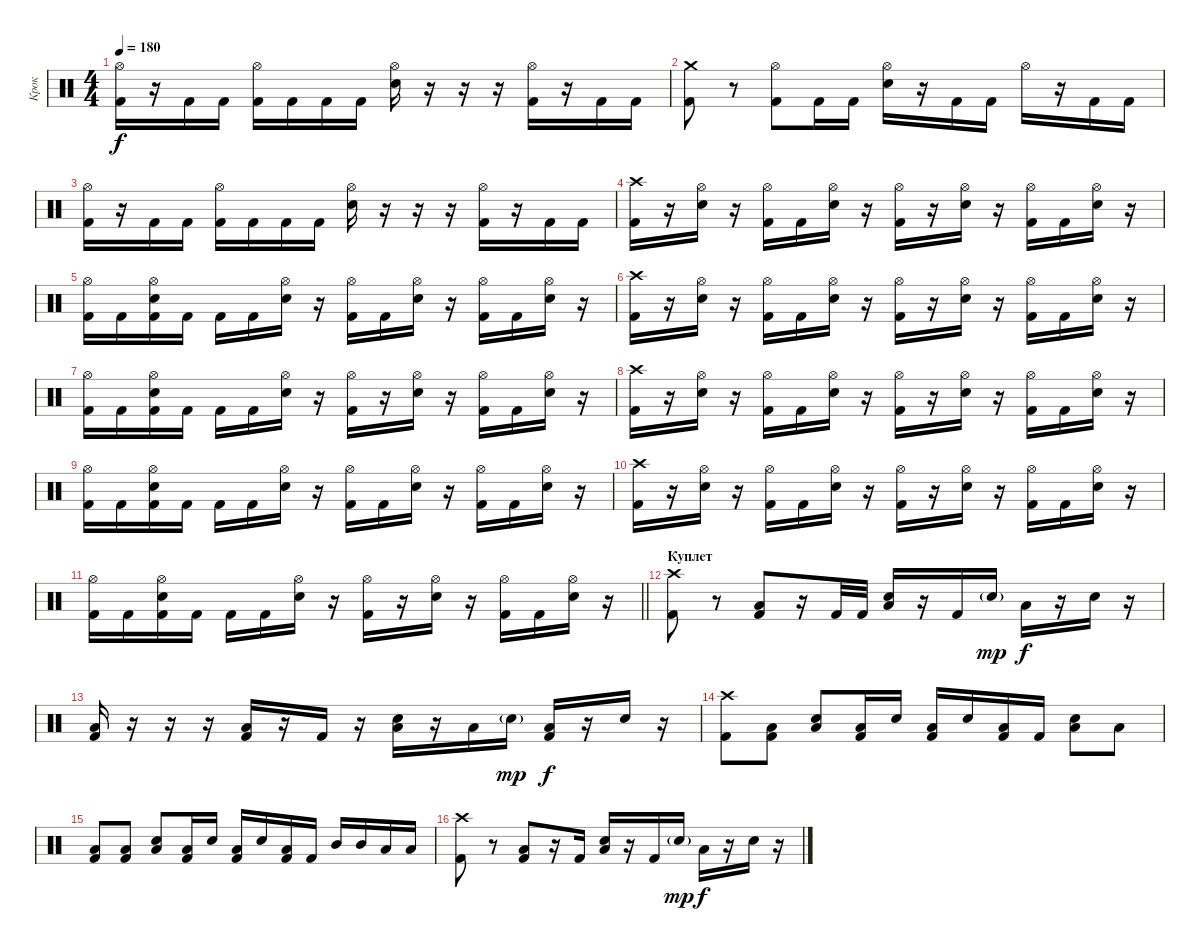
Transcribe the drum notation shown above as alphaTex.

\track ("Крок" "Крок") {instrument percussion}
\staff {score}
\articulation defaults
\ts (4 4)
\tempo 180
\clef neutral
\ks c
("Kick (hit) 2" "Hi-Hat (open)").16{dy f} r.16 "Kick (hit) 2".16 "Kick (hit) 2".16 ("Kick (hit) 2" "Hi-Hat (open)").16 "Kick (hit) 2".16 "Kick (hit) 2".16 "Kick (hit) 2".16 ("Electric Snare (hit)" "Hi-Hat (open)").16 r.16 r.16 r.16 ("Kick (hit) 2" "Hi-Hat (open)").16 r.16 "Kick (hit) 2".16 "Kick (hit) 2".16 |
("Kick (hit) 2" "Crash medium (hit)").8 r.8 ("Kick (hit) 2" "Hi-Hat (open)").8 "Kick (hit) 2".16 "Kick (hit) 2".16 ("Electric Snare (hit)" "Hi-Hat (open)").16 r.16 "Kick (hit) 2".16 "Kick (hit) 2".16 "Hi-Hat (open)".16 r.16 "Kick (hit) 2".16 "Kick (hit) 2".16 |
("Kick (hit) 2" "Hi-Hat (open)").16 r.16 "Kick (hit) 2".16 "Kick (hit) 2".16 ("Kick (hit) 2" "Hi-Hat (open)").16 "Kick (hit) 2".16 "Kick (hit) 2".16 "Kick (hit) 2".16 ("Electric Snare (hit)" "Hi-Hat (open)").16 r.16 r.16 r.16 ("Kick (hit) 2" "Hi-Hat (open)").16 r.16 "Kick (hit) 2".16 "Kick (hit) 2".16 |
("Kick (hit) 2" "Crash high (hit)").16 r.16 ("Electric Snare (hit)" "Hi-Hat (open)").16 r.16 ("Kick (hit) 2" "Hi-Hat (open)").16 "Kick (hit) 2".16 ("Electric Snare (hit)" "Hi-Hat (open)").16 r.16 ("Kick (hit) 2" "Hi-Hat (open)").16 r.16 ("Electric Snare (hit)" "Hi-Hat (open)").16 r.16 ("Kick (hit) 2" "Hi-Hat (open)").16 "Kick (hit) 2".16 ("Electric Snare (hit)" "Hi-Hat (open)").16 r.16 |
("Kick (hit) 2" "Hi-Hat (open)").16 "Kick (hit) 2".16 ("Kick (hit) 2" "Electric Snare (hit)" "Hi-Hat (open)").16 "Kick (hit) 2".16 "Kick (hit) 2".16 "Kick (hit) 2".16 ("Electric Snare (hit)" "Hi-Hat (open)").16 r.16 ("Kick (hit) 2" "Hi-Hat (open)").16 "Kick (hit) 2".16 ("Electric Snare (hit)" "Hi-Hat (open)").16 r.16 ("Kick (hit) 2" "Hi-Hat (open)").16 "Kick (hit) 2".16 ("Electric Snare (hit)" "Hi-Hat (open)").16 r.16 |
("Kick (hit) 2" "Crash high (hit)").16 r.16 ("Electric Snare (hit)" "Hi-Hat (open)").16 r.16 ("Kick (hit) 2" "Hi-Hat (open)").16 "Kick (hit) 2".16 ("Electric Snare (hit)" "Hi-Hat (open)").16 r.16 ("Kick (hit) 2" "Hi-Hat (open)").16 r.16 ("Electric Snare (hit)" "Hi-Hat (open)").16 r.16 ("Kick (hit) 2" "Hi-Hat (open)").16 "Kick (hit) 2".16 ("Electric Snare (hit)" "Hi-Hat (open)").16 r.16 |
("Kick (hit) 2" "Hi-Hat (open)").16 "Kick (hit) 2".16 ("Kick (hit) 2" "Electric Snare (hit)" "Hi-Hat (open)").16 "Kick (hit) 2".16 "Kick (hit) 2".16 "Kick (hit) 2".16 ("Electric Snare (hit)" "Hi-Hat (open)").16 r.16 ("Kick (hit) 2" "Hi-Hat (open)").16 r.16 ("Electric Snare (hit)" "Hi-Hat (open)").16 r.16 ("Kick (hit) 2" "Hi-Hat (open)").16 "Kick (hit) 2".16 ("Electric Snare (hit)" "Hi-Hat (open)").16 r.16 |
("Kick (hit) 2" "Crash high (hit)").16 r.16 ("Electric Snare (hit)" "Hi-Hat (open)").16 r.16 ("Kick (hit) 2" "Hi-Hat (open)").16 "Kick (hit) 2".16 ("Electric Snare (hit)" "Hi-Hat (open)").16 r.16 ("Kick (hit) 2" "Hi-Hat (open)").16 r.16 ("Electric Snare (hit)" "Hi-Hat (open)").16 r.16 ("Kick (hit) 2" "Hi-Hat (open)").16 "Kick (hit) 2".16 ("Electric Snare (hit)" "Hi-Hat (open)").16 r.16 |
("Kick (hit) 2" "Hi-Hat (open)").16 "Kick (hit) 2".16 ("Kick (hit) 2" "Electric Snare (hit)" "Hi-Hat (open)").16 "Kick (hit) 2".16 "Kick (hit) 2".16 "Kick (hit) 2".16 ("Electric Snare (hit)" "Hi-Hat (open)").16 r.16 ("Kick (hit) 2" "Hi-Hat (open)").16 "Kick (hit) 2".16 ("Electric Snare (hit)" "Hi-Hat (open)").16 r.16 ("Kick (hit) 2" "Hi-Hat (open)").16 "Kick (hit) 2".16 ("Electric Snare (hit)" "Hi-Hat (open)").16 r.16 |
("Kick (hit) 2" "Crash high (hit)").16 r.16 ("Electric Snare (hit)" "Hi-Hat (open)").16 r.16 ("Kick (hit) 2" "Hi-Hat (open)").16 "Kick (hit) 2".16 ("Electric Snare (hit)" "Hi-Hat (open)").16 r.16 ("Kick (hit) 2" "Hi-Hat (open)").16 r.16 ("Electric Snare (hit)" "Hi-Hat (open)").16 r.16 ("Kick (hit) 2" "Hi-Hat (open)").16 "Kick (hit) 2".16 ("Electric Snare (hit)" "Hi-Hat (open)").16 r.16 |
\barLineRight lightlight
("Kick (hit) 2" "Hi-Hat (open)").16 "Kick (hit) 2".16 ("Kick (hit) 2" "Electric Snare (hit)" "Hi-Hat (open)").16 "Kick (hit) 2".16 "Kick (hit) 2".16 "Kick (hit) 2".16 ("Electric Snare (hit)" "Hi-Hat (open)").16 r.16 ("Kick (hit) 2" "Hi-Hat (open)").16 r.16 ("Electric Snare (hit)" "Hi-Hat (open)").16 r.16 ("Kick (hit) 2" "Hi-Hat (open)").16 "Kick (hit) 2".16 ("Electric Snare (hit)" "Hi-Hat (open)").16 r.16 |
\section ("" "Куплет")
("Crash high (hit)" "Kick (hit) 2").8 r.8 ("Kick (hit) 2" "Low Floor Tom (hit)").8 r.16 "Kick (hit) 2".32 "Kick (hit) 2".32 ("Electric Snare (hit)" "Low Floor Tom (hit)").16 r.16 "Kick (hit) 2".16 "Electric Snare (hit)"{g}.16{dy mp} "Low Floor Tom (hit)".16{dy f} r.16 "Electric Snare (hit)".16 r.16 |
("Kick (hit) 2" "Low Floor Tom (hit)").16 r.16 r.16 r.16 ("Kick (hit) 2" "Low Floor Tom (hit)").16 r.16 "Kick (hit) 2".16 r.16 ("Electric Snare (hit)" "Low Tom (hit)").16 r.16 "Low Tom (hit)".16 "Electric Snare (hit)"{g}.16{dy mp} ("Kick (hit) 2" "Low Floor Tom (hit)").16{dy f} r.16 "Electric Snare (hit)".16 r.16 |
("Kick (hit) 2" "Crash high (hit)").8 ("Kick (hit) 2" "Low Floor Tom (hit)").8 ("Electric Snare (hit)" "Low Floor Tom (hit)").8 ("Kick (hit) 2" "Low Floor Tom (hit)").16 "Electric Snare (hit)".16 ("Kick (hit) 2" "Low Floor Tom (hit)").16 "Electric Snare (hit)".16 ("Kick (hit) 2" "Low Floor Tom (hit)").16 "Kick (hit) 2".16 ("Electric Snare (hit)" "Low Floor Tom (hit)").8 "Low Floor Tom (hit)".8 |
("Kick (hit) 2" "Low Tom (hit)").8 ("Kick (hit) 2" "Low Tom (hit)").8 ("Electric Snare (hit)" "Low Tom (hit)").8 ("Kick (hit) 2" "Low Tom (hit)").16 "Electric Snare (hit)".16 ("Kick (hit) 2" "Low Tom (hit)").16 "Electric Snare (hit)".16 ("Kick (hit) 2" "Low Tom (hit)").16 "Kick (hit) 2".16 "Mid Tom (hit)".16 "Mid Tom (hit)".16 "Low Tom (hit)".16 "Low Tom (hit)".16 |
("Crash high (hit)" "Kick (hit) 2").8 r.8 ("Kick (hit) 2" "Low Floor Tom (hit)").8 r.16 "Kick (hit) 2".16 ("Electric Snare (hit)" "Low Floor Tom (hit)").16 r.16 "Kick (hit) 2".16 "Electric Snare (hit)"{g}.16{dy mp} "Low Floor Tom (hit)".16{dy f} r.16 "Electric Snare (hit)".16 r.16
